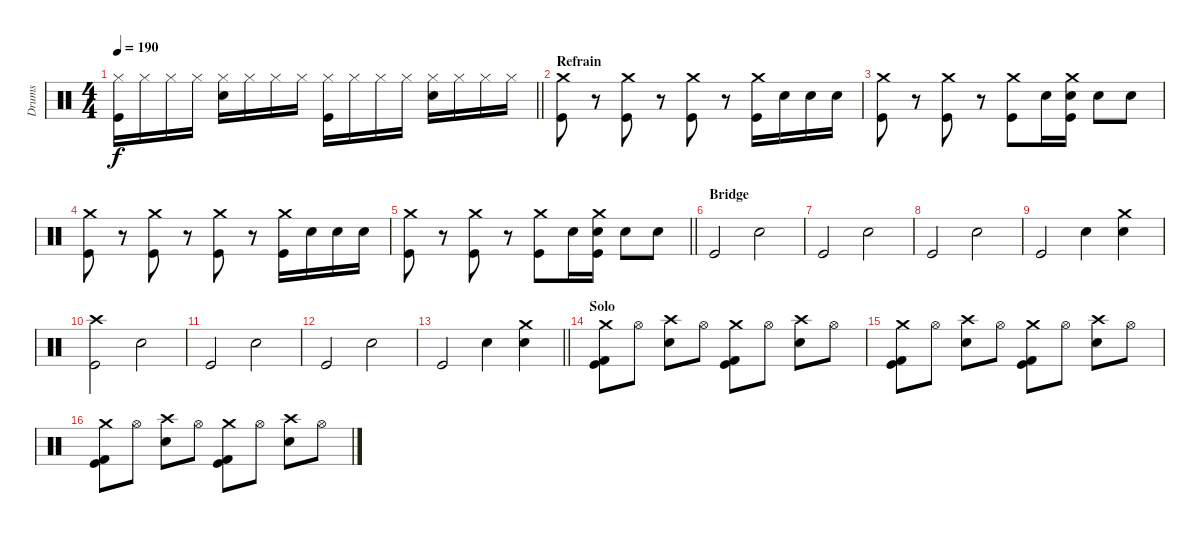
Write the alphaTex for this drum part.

\track ("Drums" "Drums") {instrument percussion}
\staff {score}
\articulation defaults
\ts (4 4)
\tempo 190
\clef neutral
\barLineRight lightlight
\ks c
("Hi-Hat (closed)" "Kick (hit)").16{dy f} "Hi-Hat (closed)".16 "Hi-Hat (closed)".16 "Hi-Hat (closed)".16 ("Hi-Hat (closed)" "Electric Snare (hit)").16 "Hi-Hat (closed)".16 "Hi-Hat (closed)".16 "Hi-Hat (closed)".16 ("Hi-Hat (closed)" "Kick (hit)").16 "Hi-Hat (closed)".16 "Hi-Hat (closed)".16 "Hi-Hat (closed)".16 ("Hi-Hat (closed)" "Electric Snare (hit)").16 "Hi-Hat (closed)".16 "Hi-Hat (closed)".16 "Hi-Hat (closed)".16 |
\section ("" "Refrain")
("Crash medium (hit)" "Kick (hit)").8 r.8 ("Crash medium (hit)" "Kick (hit)").8 r.8 ("Crash medium (hit)" "Kick (hit)").8 r.8 ("Crash medium (hit)" "Kick (hit)").16 "Electric Snare (hit)".16 "Electric Snare (hit)".16 "Electric Snare (hit)".16 |
("Crash medium (hit)" "Kick (hit)").8 r.8 ("Crash medium (hit)" "Kick (hit)").8 r.8 ("Crash medium (hit)" "Kick (hit)").8 "Electric Snare (hit)".16 ("Crash medium (hit)" "Electric Snare (hit)" "Kick (hit)").16 "Electric Snare (hit)".8 "Electric Snare (hit)".8 |
("Crash medium (hit)" "Kick (hit)").8 r.8 ("Crash medium (hit)" "Kick (hit)").8 r.8 ("Crash medium (hit)" "Kick (hit)").8 r.8 ("Crash medium (hit)" "Kick (hit)").16 "Electric Snare (hit)".16 "Electric Snare (hit)".16 "Electric Snare (hit)".16 |
\barLineRight lightlight
("Crash medium (hit)" "Kick (hit)").8 r.8 ("Crash medium (hit)" "Kick (hit)").8 r.8 ("Crash medium (hit)" "Kick (hit)").8 "Electric Snare (hit)".16 ("Crash medium (hit)" "Electric Snare (hit)" "Kick (hit)").16 "Electric Snare (hit)".8 "Electric Snare (hit)".8 |
\section ("" "Bridge")
"Kick (hit)".2 "Electric Snare (hit)".2 |
"Kick (hit)".2 "Electric Snare (hit)".2 |
"Kick (hit)".2 "Electric Snare (hit)".2 |
"Kick (hit)".2 "Electric Snare (hit)".4 ("Crash medium (hit)" "Electric Snare (hit)").4 |
("Crash high (hit)" "Kick (hit)").2 "Electric Snare (hit)".2 |
"Kick (hit)".2 "Electric Snare (hit)".2 |
"Kick (hit)".2 "Electric Snare (hit)".2 |
\barLineRight lightlight "Kick (hit)".2 "Electric Snare (hit)".4
("Crash medium (hit)" "Electric Snare (hit)").4 |
\section ("" "Solo")
("Crash medium (hit)" "Kick (hit) 2" "Kick (hit)").8 "Hi-Hat (open)".8 ("Crash high (hit)" "Electric Snare (hit)").8 "Hi-Hat (open)".8 ("Crash medium (hit)" "Kick (hit) 2" "Kick (hit)").8 "Hi-Hat (open)".8 ("Crash high (hit)" "Electric Snare (hit)").8 "Hi-Hat (open)".8 |
("Crash medium (hit)" "Kick (hit) 2" "Kick (hit)").8 "Hi-Hat (open)".8 ("Crash high (hit)" "Electric Snare (hit)").8 "Hi-Hat (open)".8 ("Crash medium (hit)" "Kick (hit) 2" "Kick (hit)").8 "Hi-Hat (open)".8 ("Crash high (hit)" "Electric Snare (hit)").8 "Hi-Hat (open)".8 |
("Crash medium (hit)" "Kick (hit) 2" "Kick (hit)").8 "Hi-Hat (open)".8 ("Crash high (hit)" "Electric Snare (hit)").8 "Hi-Hat (open)".8 ("Crash medium (hit)" "Kick (hit) 2" "Kick (hit)").8 "Hi-Hat (open)".8 ("Crash high (hit)" "Electric Snare (hit)").8 "Hi-Hat (open)".8
